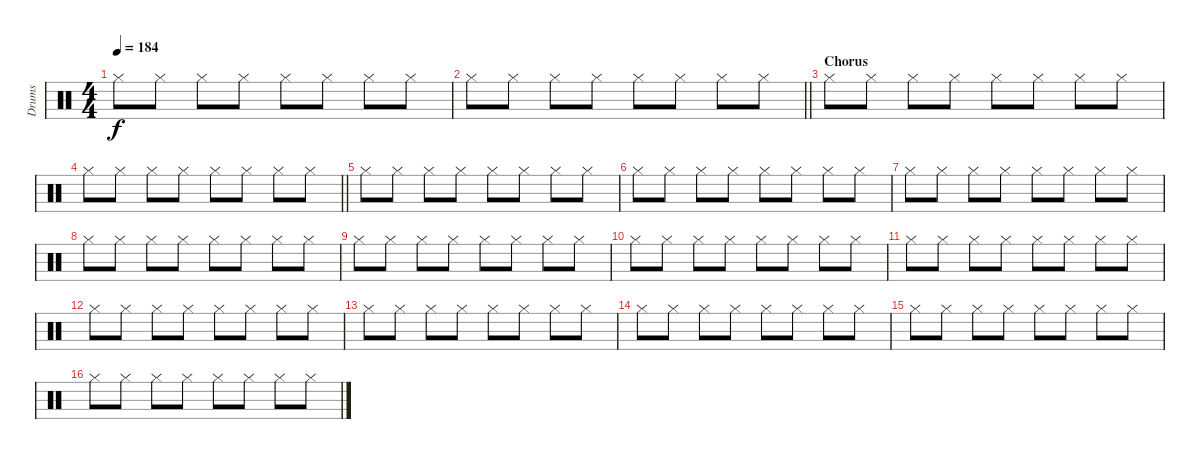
\track ("Drums" "Drums") {instrument percussion}
\staff {score}
\articulation defaults
\ts (4 4)
\tempo 184
\clef neutral
\ks c "Hi-Hat (closed)".8{dy f} "Hi-Hat (closed)".8 "Hi-Hat (closed)".8 "Hi-Hat (closed)".8 "Hi-Hat (closed)".8 "Hi-Hat (closed)".8 "Hi-Hat (closed)".8 "Hi-Hat (closed)".8
|
\barLineRight lightlight "Hi-Hat (closed)".8 "Hi-Hat (closed)".8 "Hi-Hat (closed)".8 "Hi-Hat (closed)".8 "Hi-Hat (closed)".8 "Hi-Hat (closed)".8 "Hi-Hat (closed)".8 "Hi-Hat (closed)".8
|
\section ("" "Chorus")
"Hi-Hat (closed)".8 "Hi-Hat (closed)".8 "Hi-Hat (closed)".8 "Hi-Hat (closed)".8 "Hi-Hat (closed)".8 "Hi-Hat (closed)".8 "Hi-Hat (closed)".8 "Hi-Hat (closed)".8 |
\barLineRight lightlight "Hi-Hat (closed)".8 "Hi-Hat (closed)".8 "Hi-Hat (closed)".8 "Hi-Hat (closed)".8 "Hi-Hat (closed)".8 "Hi-Hat (closed)".8 "Hi-Hat (closed)".8 "Hi-Hat (closed)".8
|
"Hi-Hat (closed)".8 "Hi-Hat (closed)".8 "Hi-Hat (closed)".8 "Hi-Hat (closed)".8 "Hi-Hat (closed)".8 "Hi-Hat (closed)".8 "Hi-Hat (closed)".8 "Hi-Hat (closed)".8 |
"Hi-Hat (closed)".8 "Hi-Hat (closed)".8 "Hi-Hat (closed)".8 "Hi-Hat (closed)".8 "Hi-Hat (closed)".8 "Hi-Hat (closed)".8 "Hi-Hat (closed)".8 "Hi-Hat (closed)".8 |
"Hi-Hat (closed)".8 "Hi-Hat (closed)".8 "Hi-Hat (closed)".8 "Hi-Hat (closed)".8 "Hi-Hat (closed)".8 "Hi-Hat (closed)".8 "Hi-Hat (closed)".8 "Hi-Hat (closed)".8 |
"Hi-Hat (closed)".8 "Hi-Hat (closed)".8 "Hi-Hat (closed)".8 "Hi-Hat (closed)".8 "Hi-Hat (closed)".8 "Hi-Hat (closed)".8 "Hi-Hat (closed)".8 "Hi-Hat (closed)".8 |
"Hi-Hat (closed)".8 "Hi-Hat (closed)".8 "Hi-Hat (closed)".8 "Hi-Hat (closed)".8 "Hi-Hat (closed)".8 "Hi-Hat (closed)".8 "Hi-Hat (closed)".8 "Hi-Hat (closed)".8 |
"Hi-Hat (closed)".8 "Hi-Hat (closed)".8 "Hi-Hat (closed)".8 "Hi-Hat (closed)".8 "Hi-Hat (closed)".8 "Hi-Hat (closed)".8 "Hi-Hat (closed)".8 "Hi-Hat (closed)".8 |
"Hi-Hat (closed)".8 "Hi-Hat (closed)".8 "Hi-Hat (closed)".8 "Hi-Hat (closed)".8 "Hi-Hat (closed)".8 "Hi-Hat (closed)".8 "Hi-Hat (closed)".8 "Hi-Hat (closed)".8 |
"Hi-Hat (closed)".8 "Hi-Hat (closed)".8 "Hi-Hat (closed)".8 "Hi-Hat (closed)".8 "Hi-Hat (closed)".8 "Hi-Hat (closed)".8 "Hi-Hat (closed)".8 "Hi-Hat (closed)".8 |
"Hi-Hat (closed)".8 "Hi-Hat (closed)".8 "Hi-Hat (closed)".8 "Hi-Hat (closed)".8 "Hi-Hat (closed)".8 "Hi-Hat (closed)".8 "Hi-Hat (closed)".8 "Hi-Hat (closed)".8 |
"Hi-Hat (closed)".8 "Hi-Hat (closed)".8 "Hi-Hat (closed)".8 "Hi-Hat (closed)".8 "Hi-Hat (closed)".8 "Hi-Hat (closed)".8 "Hi-Hat (closed)".8 "Hi-Hat (closed)".8 |
"Hi-Hat (closed)".8 "Hi-Hat (closed)".8 "Hi-Hat (closed)".8 "Hi-Hat (closed)".8 "Hi-Hat (closed)".8 "Hi-Hat (closed)".8 "Hi-Hat (closed)".8 "Hi-Hat (closed)".8 |
"Hi-Hat (closed)".8 "Hi-Hat (closed)".8 "Hi-Hat (closed)".8 "Hi-Hat (closed)".8 "Hi-Hat (closed)".8 "Hi-Hat (closed)".8 "Hi-Hat (closed)".8 "Hi-Hat (closed)".8
